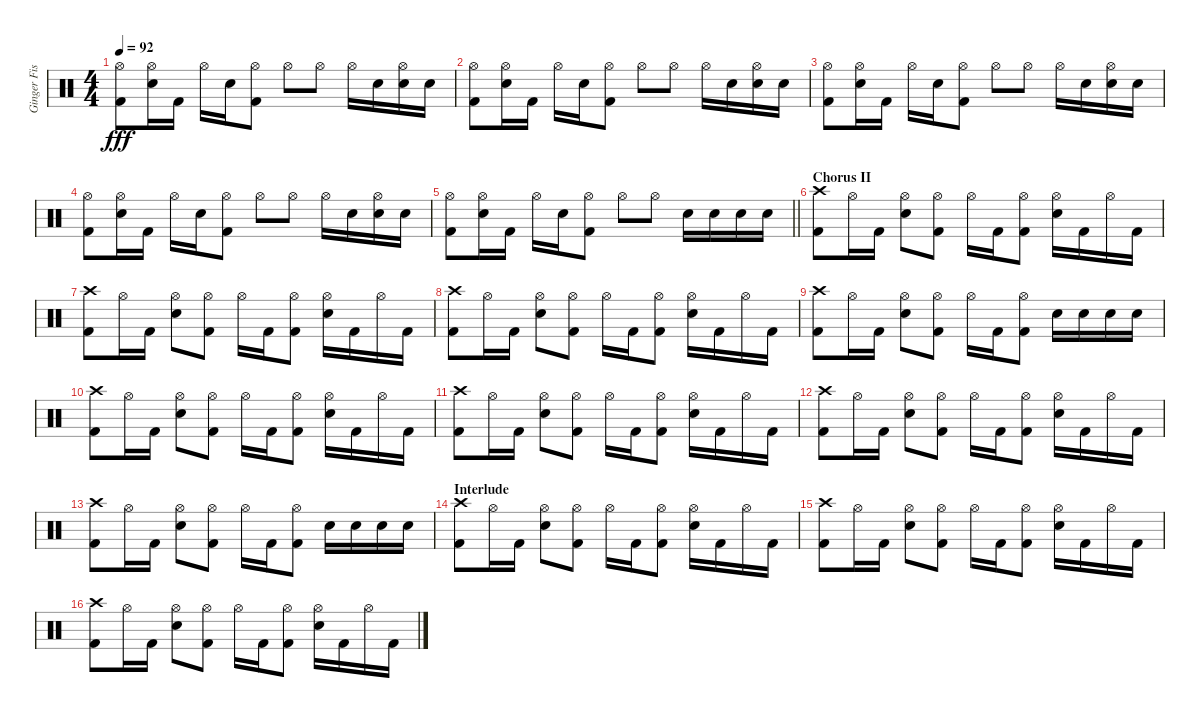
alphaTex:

\track ("Ginger Fish" "Ginger Fis") {instrument percussion}
\staff {score}
\articulation defaults
\ts (4 4)
\tempo 92
\clef neutral
\ks c
("Hi-Hat (open)" "Kick (hit) 2").8{dy fff} ("Hi-Hat (open)" "Electric Snare (hit)").16 "Kick (hit) 2".16 "Hi-Hat (open)".16 "Electric Snare (hit)".16 ("Hi-Hat (open)" "Kick (hit) 2").8 "Hi-Hat (open)".8 "Hi-Hat (open)".8 "Hi-Hat (open)".16 "Electric Snare (hit)".16 ("Hi-Hat (open)" "Electric Snare (hit)").16 "Electric Snare (hit)".16 |
("Hi-Hat (open)" "Kick (hit) 2").8 ("Hi-Hat (open)" "Electric Snare (hit)").16 "Kick (hit) 2".16 "Hi-Hat (open)".16 "Electric Snare (hit)".16 ("Hi-Hat (open)" "Kick (hit) 2").8 "Hi-Hat (open)".8 "Hi-Hat (open)".8 "Hi-Hat (open)".16 "Electric Snare (hit)".16 ("Hi-Hat (open)" "Electric Snare (hit)").16 "Electric Snare (hit)".16 |
("Hi-Hat (open)" "Kick (hit) 2").8 ("Hi-Hat (open)" "Electric Snare (hit)").16 "Kick (hit) 2".16 "Hi-Hat (open)".16 "Electric Snare (hit)".16 ("Hi-Hat (open)" "Kick (hit) 2").8 "Hi-Hat (open)".8 "Hi-Hat (open)".8 "Hi-Hat (open)".16 "Electric Snare (hit)".16 ("Hi-Hat (open)" "Electric Snare (hit)").16 "Electric Snare (hit)".16 |
("Hi-Hat (open)" "Kick (hit) 2").8 ("Hi-Hat (open)" "Electric Snare (hit)").16 "Kick (hit) 2".16 "Hi-Hat (open)".16 "Electric Snare (hit)".16 ("Hi-Hat (open)" "Kick (hit) 2").8 "Hi-Hat (open)".8 "Hi-Hat (open)".8 "Hi-Hat (open)".16 "Electric Snare (hit)".16 ("Hi-Hat (open)" "Electric Snare (hit)").16 "Electric Snare (hit)".16 |
\barLineRight lightlight
("Hi-Hat (open)" "Kick (hit) 2").8 ("Hi-Hat (open)" "Electric Snare (hit)").16 "Kick (hit) 2".16 "Hi-Hat (open)".16 "Electric Snare (hit)".16 ("Hi-Hat (open)" "Kick (hit) 2").8 "Hi-Hat (open)".8 "Hi-Hat (open)".8 "Electric Snare (hit)".16 "Electric Snare (hit)".16 "Electric Snare (hit)".16 "Electric Snare (hit)".16 |
\section ("" "Chorus II")
("Crash high (hit)" "Kick (hit) 2").8 "Hi-Hat (open)".16 "Kick (hit) 2".16 ("Hi-Hat (open)" "Electric Snare (hit)").8 ("Hi-Hat (open)" "Kick (hit) 2").8 "Hi-Hat (open)".16 "Kick (hit) 2".16 ("Hi-Hat (open)" "Kick (hit) 2").8 ("Hi-Hat (open)" "Electric Snare (hit)").16 "Kick (hit) 2".16 "Hi-Hat (open)".16 "Kick (hit) 2".16 |
("Crash high (hit)" "Kick (hit) 2").8 "Hi-Hat (open)".16 "Kick (hit) 2".16 ("Hi-Hat (open)" "Electric Snare (hit)").8 ("Hi-Hat (open)" "Kick (hit) 2").8 "Hi-Hat (open)".16 "Kick (hit) 2".16 ("Hi-Hat (open)" "Kick (hit) 2").8 ("Hi-Hat (open)" "Electric Snare (hit)").16 "Kick (hit) 2".16 "Hi-Hat (open)".16 "Kick (hit) 2".16 |
("Crash high (hit)" "Kick (hit) 2").8 "Hi-Hat (open)".16 "Kick (hit) 2".16 ("Hi-Hat (open)" "Electric Snare (hit)").8 ("Hi-Hat (open)" "Kick (hit) 2").8 "Hi-Hat (open)".16 "Kick (hit) 2".16 ("Hi-Hat (open)" "Kick (hit) 2").8 ("Hi-Hat (open)" "Electric Snare (hit)").16 "Kick (hit) 2".16 "Hi-Hat (open)".16 "Kick (hit) 2".16 |
("Crash high (hit)" "Kick (hit) 2").8 "Hi-Hat (open)".16 "Kick (hit) 2".16 ("Hi-Hat (open)" "Electric Snare (hit)").8 ("Hi-Hat (open)" "Kick (hit) 2").8 "Hi-Hat (open)".16 "Kick (hit) 2".16 ("Hi-Hat (open)" "Kick (hit) 2").8 "Electric Snare (hit)".16 "Electric Snare (hit)".16 "Electric Snare (hit)".16 "Electric Snare (hit)".16 |
("Crash high (hit)" "Kick (hit) 2").8 "Hi-Hat (open)".16 "Kick (hit) 2".16 ("Hi-Hat (open)" "Electric Snare (hit)").8 ("Hi-Hat (open)" "Kick (hit) 2").8 "Hi-Hat (open)".16 "Kick (hit) 2".16 ("Hi-Hat (open)" "Kick (hit) 2").8 ("Hi-Hat (open)" "Electric Snare (hit)").16 "Kick (hit) 2".16 "Hi-Hat (open)".16 "Kick (hit) 2".16 |
("Crash high (hit)" "Kick (hit) 2").8 "Hi-Hat (open)".16 "Kick (hit) 2".16 ("Hi-Hat (open)" "Electric Snare (hit)").8 ("Hi-Hat (open)" "Kick (hit) 2").8 "Hi-Hat (open)".16 "Kick (hit) 2".16 ("Hi-Hat (open)" "Kick (hit) 2").8 ("Hi-Hat (open)" "Electric Snare (hit)").16 "Kick (hit) 2".16 "Hi-Hat (open)".16 "Kick (hit) 2".16 |
("Crash high (hit)" "Kick (hit) 2").8 "Hi-Hat (open)".16 "Kick (hit) 2".16 ("Hi-Hat (open)" "Electric Snare (hit)").8 ("Hi-Hat (open)" "Kick (hit) 2").8 "Hi-Hat (open)".16 "Kick (hit) 2".16 ("Hi-Hat (open)" "Kick (hit) 2").8 ("Hi-Hat (open)" "Electric Snare (hit)").16 "Kick (hit) 2".16 "Hi-Hat (open)".16 "Kick (hit) 2".16 |
("Crash high (hit)" "Kick (hit) 2").8 "Hi-Hat (open)".16 "Kick (hit) 2".16 ("Hi-Hat (open)" "Electric Snare (hit)").8 ("Hi-Hat (open)" "Kick (hit) 2").8 "Hi-Hat (open)".16 "Kick (hit) 2".16 ("Hi-Hat (open)" "Kick (hit) 2").8 "Electric Snare (hit)".16 "Electric Snare (hit)".16 "Electric Snare (hit)".16 "Electric Snare (hit)".16 |
\section ("" "Interlude")
("Crash high (hit)" "Kick (hit) 2").8 "Hi-Hat (open)".16 "Kick (hit) 2".16 ("Hi-Hat (open)" "Electric Snare (hit)").8 ("Hi-Hat (open)" "Kick (hit) 2").8 "Hi-Hat (open)".16 "Kick (hit) 2".16 ("Hi-Hat (open)" "Kick (hit) 2").8 ("Hi-Hat (open)" "Electric Snare (hit)").16 "Kick (hit) 2".16 "Hi-Hat (open)".16 "Kick (hit) 2".16 |
("Crash high (hit)" "Kick (hit) 2").8 "Hi-Hat (open)".16 "Kick (hit) 2".16 ("Hi-Hat (open)" "Electric Snare (hit)").8 ("Hi-Hat (open)" "Kick (hit) 2").8 "Hi-Hat (open)".16 "Kick (hit) 2".16 ("Hi-Hat (open)" "Kick (hit) 2").8 ("Hi-Hat (open)" "Electric Snare (hit)").16 "Kick (hit) 2".16 "Hi-Hat (open)".16 "Kick (hit) 2".16 |
("Crash high (hit)" "Kick (hit) 2").8 "Hi-Hat (open)".16 "Kick (hit) 2".16 ("Hi-Hat (open)" "Electric Snare (hit)").8 ("Hi-Hat (open)" "Kick (hit) 2").8 "Hi-Hat (open)".16 "Kick (hit) 2".16 ("Hi-Hat (open)" "Kick (hit) 2").8 ("Hi-Hat (open)" "Electric Snare (hit)").16 "Kick (hit) 2".16 "Hi-Hat (open)".16 "Kick (hit) 2".16
